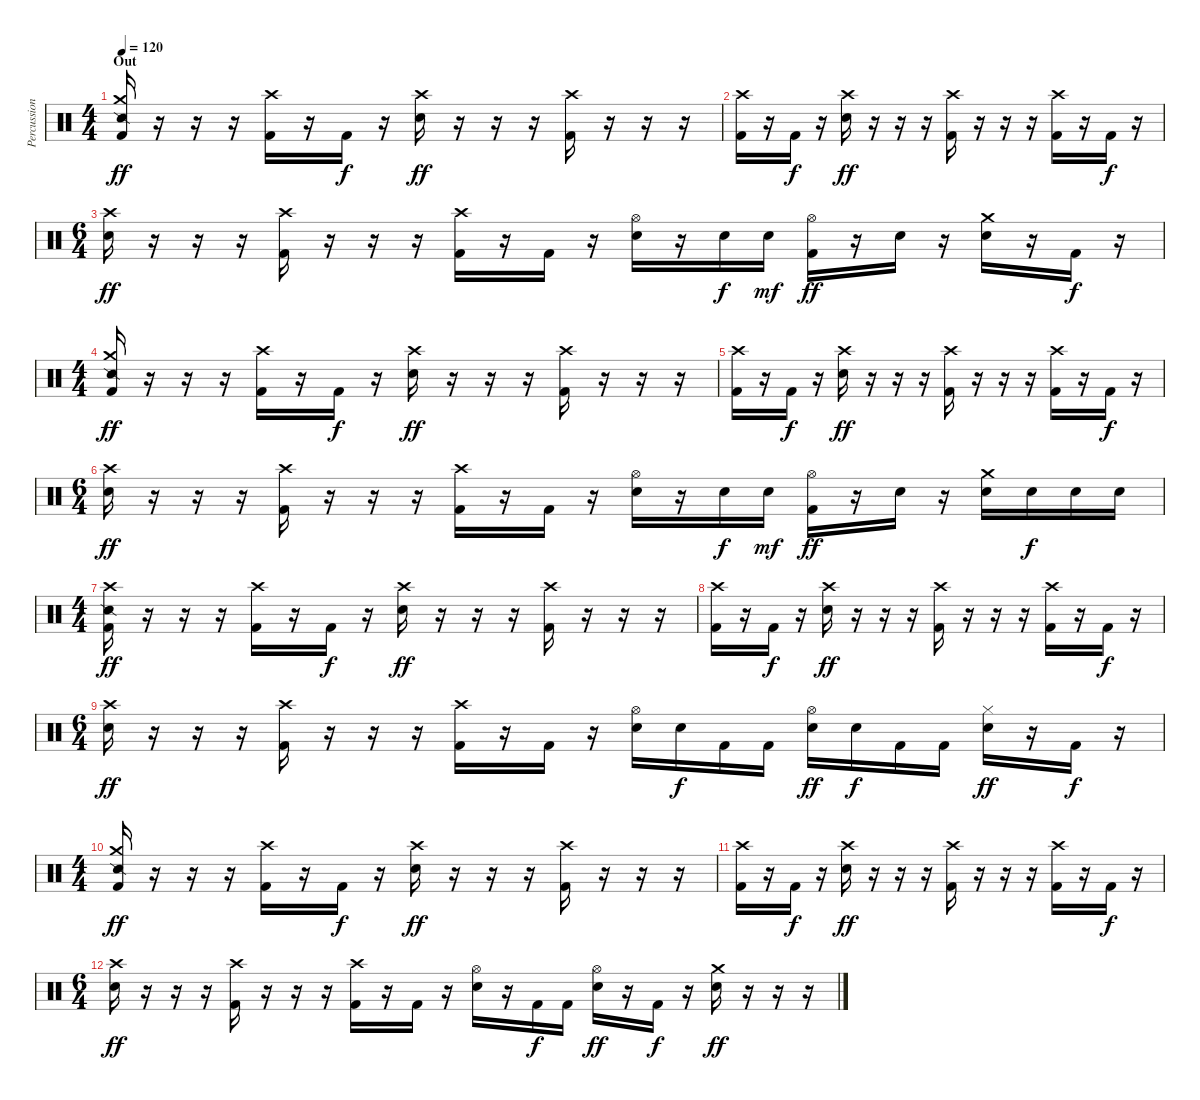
\track ("Percussion" "Percussion") {instrument percussion}
\staff {score}
\articulation defaults
\ts (4 4)
\section ("" "Out")
\tempo 120
\clef neutral
\ks c
("Snare (side stick) 2" "Crash medium (hit)" "Kick (hit) 2").16{dy ff} r.16 r.16 r.16 ("Crash high (hit)" "Kick (hit) 2").16 r.16 "Kick (hit) 2".16{dy f} r.16 ("Crash high (hit)" "Snare (hit) 2").16{dy ff} r.16 r.16 r.16 ("Crash high (hit)" "Kick (hit) 2").16 r.16 r.16 r.16 |
("Crash high (hit)" "Kick (hit) 2").16 r.16 "Kick (hit) 2".16{dy f} r.16 ("Crash high (hit)" "Snare (hit) 2").16{dy ff} r.16 r.16 r.16 ("Crash high (hit)" "Kick (hit) 2").16 r.16 r.16 r.16 ("Crash high (hit)" "Kick (hit) 2").16 r.16 "Kick (hit) 2".16{dy f} r.16 |
\ts (6 4)
("Crash high (hit)" "Snare (hit) 2").16{dy ff} r.16 r.16 r.16 ("Crash high (hit)" "Kick (hit) 2").16 r.16 r.16 r.16 ("Crash high (hit)" "Kick (hit) 2").16 r.16 "Kick (hit) 2".16 r.16 ("Hi-Hat (open)" "Snare (hit) 2").16 r.16 "Snare (hit) 2".16{dy f} "Snare (hit) 2".16{dy mf} ("Hi-Hat (open)" "Kick (hit) 2").16{dy ff} r.16 "Snare (hit) 2".16 r.16 ("Crash medium (hit)" "Snare (hit) 2").16 r.16 "Kick (hit) 2".16{dy f} r.16 |
\ts (4 4)
("Snare (side stick) 2" "Crash medium (hit)" "Kick (hit) 2").16{dy ff} r.16 r.16 r.16 ("Crash high (hit)" "Kick (hit) 2").16 r.16 "Kick (hit) 2".16{dy f} r.16 ("Crash high (hit)" "Snare (hit) 2").16{dy ff} r.16 r.16 r.16 ("Crash high (hit)" "Kick (hit) 2").16 r.16 r.16 r.16 |
("Crash high (hit)" "Kick (hit) 2").16 r.16 "Kick (hit) 2".16{dy f} r.16 ("Crash high (hit)" "Snare (hit) 2").16{dy ff} r.16 r.16 r.16 ("Crash high (hit)" "Kick (hit) 2").16 r.16 r.16 r.16 ("Crash high (hit)" "Kick (hit) 2").16 r.16 "Kick (hit) 2".16{dy f} r.16 |
\ts (6 4)
("Crash high (hit)" "Snare (hit) 2").16{dy ff} r.16 r.16 r.16 ("Crash high (hit)" "Kick (hit) 2").16 r.16 r.16 r.16 ("Crash high (hit)" "Kick (hit) 2").16 r.16 "Kick (hit) 2".16 r.16 ("Hi-Hat (open)" "Snare (hit) 2").16 r.16 "Snare (hit) 2".16{dy f} "Snare (hit) 2".16{dy mf} ("Hi-Hat (open)" "Kick (hit) 2").16{dy ff} r.16 "Snare (hit) 2".16 r.16 ("Crash medium (hit)" "Snare (hit) 2").16 "Snare (hit) 2".16{dy f} "Snare (hit) 2".16 "Snare (hit) 2".16 |
\ts (4 4)
("Snare (side stick) 2" "Crash high (hit)" "Kick (hit) 2").16{dy ff} r.16 r.16 r.16 ("Crash high (hit)" "Kick (hit) 2").16 r.16 "Kick (hit) 2".16{dy f} r.16 ("Crash high (hit)" "Snare (hit) 2").16{dy ff} r.16 r.16 r.16 ("Crash high (hit)" "Kick (hit) 2").16 r.16 r.16 r.16 |
("Crash high (hit)" "Kick (hit) 2").16 r.16 "Kick (hit) 2".16{dy f} r.16 ("Crash high (hit)" "Snare (hit) 2").16{dy ff} r.16 r.16 r.16 ("Crash high (hit)" "Kick (hit) 2").16 r.16 r.16 r.16 ("Crash high (hit)" "Kick (hit) 2").16 r.16 "Kick (hit) 2".16{dy f} r.16 |
\ts (6 4)
("Crash high (hit)" "Snare (hit) 2").16{dy ff} r.16 r.16 r.16 ("Crash high (hit)" "Kick (hit) 2").16 r.16 r.16 r.16 ("Crash high (hit)" "Kick (hit) 2").16 r.16 "Kick (hit) 2".16 r.16 ("Hi-Hat (open)" "Snare (hit) 2").16 "Snare (hit) 2".16{dy f} "Kick (hit) 2".16 "Kick (hit) 2".16 ("Hi-Hat (open)" "Snare (hit) 2").16{dy ff} "Snare (hit) 2".16{dy f} "Kick (hit) 2".16 "Kick (hit) 2".16 ("Hi-Hat (closed)" "Snare (hit) 2").16{dy ff} r.16 "Kick (hit) 2".16{dy f} r.16 |
\ts (4 4)
("Snare (side stick) 2" "Crash medium (hit)" "Kick (hit) 2").16{dy ff} r.16 r.16 r.16 ("Crash high (hit)" "Kick (hit) 2").16 r.16 "Kick (hit) 2".16{dy f} r.16 ("Crash high (hit)" "Snare (hit) 2").16{dy ff} r.16 r.16 r.16 ("Crash high (hit)" "Kick (hit) 2").16 r.16 r.16 r.16 |
("Crash high (hit)" "Kick (hit) 2").16 r.16 "Kick (hit) 2".16{dy f} r.16 ("Crash high (hit)" "Snare (hit) 2").16{dy ff} r.16 r.16 r.16 ("Crash high (hit)" "Kick (hit) 2").16 r.16 r.16 r.16 ("Crash high (hit)" "Kick (hit) 2").16 r.16 "Kick (hit) 2".16{dy f} r.16 |
\ts (6 4)
("Crash high (hit)" "Snare (hit) 2").16{dy ff} r.16 r.16 r.16 ("Crash high (hit)" "Kick (hit) 2").16 r.16 r.16 r.16 ("Crash high (hit)" "Kick (hit) 2").16 r.16 "Kick (hit) 2".16 r.16 ("Hi-Hat (open)" "Snare (hit) 2").16 r.16 "Kick (hit) 2".16{dy f} "Kick (hit) 2".16 ("Hi-Hat (open)" "Snare (hit) 2").16{dy ff} r.16 "Kick (hit) 2".16{dy f} r.16 ("Crash medium (hit)" "Snare (hit) 2").16{dy ff} r.16 r.16 r.16
